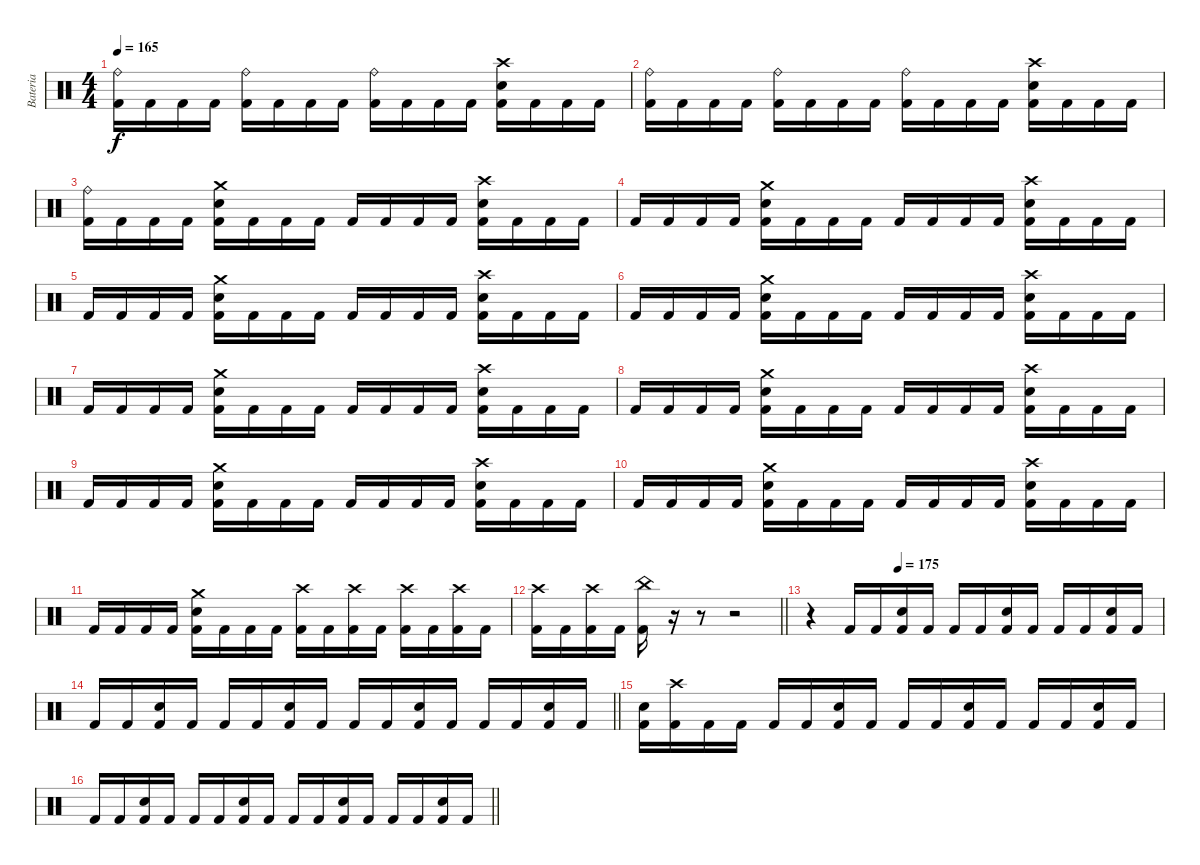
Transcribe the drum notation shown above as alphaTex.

\track ("Bateria" "Bateria") {instrument percussion}
\staff {score}
\articulation defaults
\ts (4 4)
\tempo 165
\clef neutral
\ks c
("Ride (bell)" "Kick (hit) 2").16{dy f} "Kick (hit) 2".16 "Kick (hit) 2".16 "Kick (hit) 2".16 ("Ride (bell)" "Kick (hit) 2").16 "Kick (hit) 2".16 "Kick (hit) 2".16 "Kick (hit) 2".16 ("Ride (bell)" "Kick (hit) 2").16 "Kick (hit) 2".16 "Kick (hit) 2".16 "Kick (hit) 2".16 ("Snare (hit) 2" "Crash high (hit)" "Kick (hit) 2").16 "Kick (hit) 2".16 "Kick (hit) 2".16 "Kick (hit) 2".16 |
("Ride (bell)" "Kick (hit) 2").16 "Kick (hit) 2".16 "Kick (hit) 2".16 "Kick (hit) 2".16 ("Ride (bell)" "Kick (hit) 2").16 "Kick (hit) 2".16 "Kick (hit) 2".16 "Kick (hit) 2".16 ("Ride (bell)" "Kick (hit) 2").16 "Kick (hit) 2".16 "Kick (hit) 2".16 "Kick (hit) 2".16 ("Snare (hit) 2" "Crash high (hit)" "Kick (hit) 2").16 "Kick (hit) 2".16 "Kick (hit) 2".16 "Kick (hit) 2".16 |
("Ride (bell)" "Kick (hit) 2").16 "Kick (hit) 2".16 "Kick (hit) 2".16 "Kick (hit) 2".16 ("Crash medium (hit)" "Snare (hit) 2" "Kick (hit) 2").16 "Kick (hit) 2".16 "Kick (hit) 2".16 "Kick (hit) 2".16 "Kick (hit) 2".16 "Kick (hit) 2".16 "Kick (hit) 2".16 "Kick (hit) 2".16 ("Crash high (hit)" "Snare (hit) 2" "Kick (hit) 2").16 "Kick (hit) 2".16 "Kick (hit) 2".16 "Kick (hit) 2".16 |
"Kick (hit) 2".16 "Kick (hit) 2".16 "Kick (hit) 2".16 "Kick (hit) 2".16 ("Crash medium (hit)" "Snare (hit) 2" "Kick (hit) 2").16 "Kick (hit) 2".16 "Kick (hit) 2".16 "Kick (hit) 2".16 "Kick (hit) 2".16 "Kick (hit) 2".16 "Kick (hit) 2".16 "Kick (hit) 2".16 ("Crash high (hit)" "Snare (hit) 2" "Kick (hit) 2").16 "Kick (hit) 2".16 "Kick (hit) 2".16 "Kick (hit) 2".16 |
"Kick (hit) 2".16 "Kick (hit) 2".16 "Kick (hit) 2".16 "Kick (hit) 2".16 ("Crash medium (hit)" "Snare (hit) 2" "Kick (hit) 2").16 "Kick (hit) 2".16 "Kick (hit) 2".16 "Kick (hit) 2".16 "Kick (hit) 2".16 "Kick (hit) 2".16 "Kick (hit) 2".16 "Kick (hit) 2".16 ("Crash high (hit)" "Snare (hit) 2" "Kick (hit) 2").16 "Kick (hit) 2".16 "Kick (hit) 2".16 "Kick (hit) 2".16 |
"Kick (hit) 2".16 "Kick (hit) 2".16 "Kick (hit) 2".16 "Kick (hit) 2".16 ("Crash medium (hit)" "Snare (hit) 2" "Kick (hit) 2").16 "Kick (hit) 2".16 "Kick (hit) 2".16 "Kick (hit) 2".16 "Kick (hit) 2".16 "Kick (hit) 2".16 "Kick (hit) 2".16 "Kick (hit) 2".16 ("Crash high (hit)" "Snare (hit) 2" "Kick (hit) 2").16 "Kick (hit) 2".16 "Kick (hit) 2".16 "Kick (hit) 2".16 |
"Kick (hit) 2".16 "Kick (hit) 2".16 "Kick (hit) 2".16 "Kick (hit) 2".16 ("Crash medium (hit)" "Snare (hit) 2" "Kick (hit) 2").16 "Kick (hit) 2".16 "Kick (hit) 2".16 "Kick (hit) 2".16 "Kick (hit) 2".16 "Kick (hit) 2".16 "Kick (hit) 2".16 "Kick (hit) 2".16 ("Crash high (hit)" "Snare (hit) 2" "Kick (hit) 2").16 "Kick (hit) 2".16 "Kick (hit) 2".16 "Kick (hit) 2".16 |
"Kick (hit) 2".16 "Kick (hit) 2".16 "Kick (hit) 2".16 "Kick (hit) 2".16 ("Crash medium (hit)" "Snare (hit) 2" "Kick (hit) 2").16 "Kick (hit) 2".16 "Kick (hit) 2".16 "Kick (hit) 2".16 "Kick (hit) 2".16 "Kick (hit) 2".16 "Kick (hit) 2".16 "Kick (hit) 2".16 ("Crash high (hit)" "Snare (hit) 2" "Kick (hit) 2").16 "Kick (hit) 2".16 "Kick (hit) 2".16 "Kick (hit) 2".16 |
"Kick (hit) 2".16 "Kick (hit) 2".16 "Kick (hit) 2".16 "Kick (hit) 2".16 ("Crash medium (hit)" "Snare (hit) 2" "Kick (hit) 2").16 "Kick (hit) 2".16 "Kick (hit) 2".16 "Kick (hit) 2".16 "Kick (hit) 2".16 "Kick (hit) 2".16 "Kick (hit) 2".16 "Kick (hit) 2".16 ("Crash high (hit)" "Snare (hit) 2" "Kick (hit) 2").16 "Kick (hit) 2".16 "Kick (hit) 2".16 "Kick (hit) 2".16 |
"Kick (hit) 2".16 "Kick (hit) 2".16 "Kick (hit) 2".16 "Kick (hit) 2".16 ("Crash medium (hit)" "Snare (hit) 2" "Kick (hit) 2").16 "Kick (hit) 2".16 "Kick (hit) 2".16 "Kick (hit) 2".16 "Kick (hit) 2".16 "Kick (hit) 2".16 "Kick (hit) 2".16 "Kick (hit) 2".16 ("Crash high (hit)" "Snare (hit) 2" "Kick (hit) 2").16 "Kick (hit) 2".16 "Kick (hit) 2".16 "Kick (hit) 2".16 |
"Kick (hit) 2".16 "Kick (hit) 2".16 "Kick (hit) 2".16 "Kick (hit) 2".16 ("Crash medium (hit)" "Snare (hit) 2" "Kick (hit) 2").16 "Kick (hit) 2".16 "Kick (hit) 2".16 "Kick (hit) 2".16 ("Crash high (hit)" "Kick (hit) 2").16 "Kick (hit) 2".16 ("Crash high (hit)" "Kick (hit) 2").16 "Kick (hit) 2".16 ("Crash high (hit)" "Kick (hit) 2").16 "Kick (hit) 2".16 ("Crash high (hit)" "Kick (hit) 2").16 "Kick (hit) 2".16 |
\barLineRight lightlight
("Crash high (hit)" "Kick (hit) 2").16 "Kick (hit) 2".16 ("Crash high (hit)" "Kick (hit) 2").16 "Kick (hit) 2".16 ("China (hit)" "Kick (hit) 2").16 r.16 r.8 r.2 |
\tempo (175 0.25)
r.4 "Kick (hit) 2".16 "Kick (hit) 2".16 ("Snare (hit) 2" "Kick (hit) 2").16 "Kick (hit) 2".16 "Kick (hit) 2".16 "Kick (hit) 2".16 ("Snare (hit) 2" "Kick (hit) 2").16 "Kick (hit) 2".16 "Kick (hit) 2".16 "Kick (hit) 2".16 ("Snare (hit) 2" "Kick (hit) 2").16 "Kick (hit) 2".16 |
\barLineRight lightlight "Kick (hit) 2".16 "Kick (hit) 2".16
("Snare (hit) 2" "Kick (hit) 2").16 "Kick (hit) 2".16 "Kick (hit) 2".16 "Kick (hit) 2".16 ("Snare (hit) 2" "Kick (hit) 2").16 "Kick (hit) 2".16 "Kick (hit) 2".16 "Kick (hit) 2".16 ("Snare (hit) 2" "Kick (hit) 2").16 "Kick (hit) 2".16 "Kick (hit) 2".16 "Kick (hit) 2".16 ("Snare (hit) 2" "Kick (hit) 2").16 "Kick (hit) 2".16 |
("Snare (hit) 2" "Kick (hit) 2").16 ("Crash high (hit)" "Kick (hit) 2").16 "Kick (hit) 2".16 "Kick (hit) 2".16 "Kick (hit) 2".16 "Kick (hit) 2".16 ("Snare (hit) 2" "Kick (hit) 2").16 "Kick (hit) 2".16 "Kick (hit) 2".16 "Kick (hit) 2".16 ("Snare (hit) 2" "Kick (hit) 2").16 "Kick (hit) 2".16 "Kick (hit) 2".16 "Kick (hit) 2".16 ("Snare (hit) 2" "Kick (hit) 2").16 "Kick (hit) 2".16 |
\barLineRight lightlight "Kick (hit) 2".16 "Kick (hit) 2".16
("Snare (hit) 2" "Kick (hit) 2").16 "Kick (hit) 2".16 "Kick (hit) 2".16 "Kick (hit) 2".16 ("Snare (hit) 2" "Kick (hit) 2").16 "Kick (hit) 2".16 "Kick (hit) 2".16 "Kick (hit) 2".16 ("Snare (hit) 2" "Kick (hit) 2").16 "Kick (hit) 2".16 "Kick (hit) 2".16 "Kick (hit) 2".16 ("Snare (hit) 2" "Kick (hit) 2").16 "Kick (hit) 2".16
